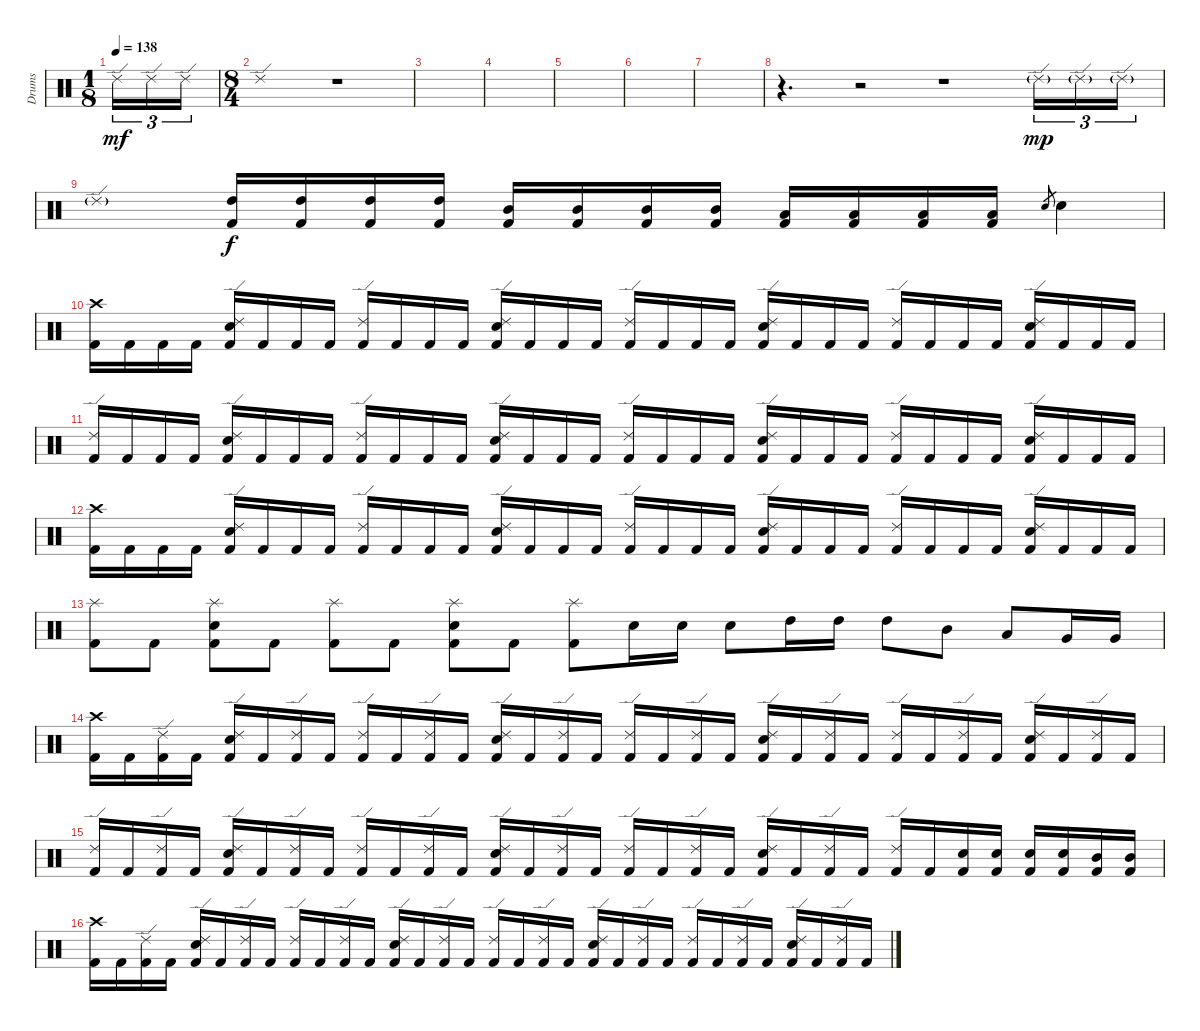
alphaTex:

\track ("Drums" "Drums") {instrument percussion}
\staff {score}
\articulation defaults
\ts (1 8)
\tempo 138
\clef neutral
\ks c "Ride (edge) 2".16{tu (3 2) dy mf} "Ride (edge) 2".16{tu (3 2)} "Ride (edge) 2".16{tu (3 2)}
|
\ts (8 4)
"Ride (edge) 2".1 r.1 |
|
|
|
|
|
r.4{d} r.2 r.1 "Ride (edge) 2"{g}.16{tu (3 2) dy mp} "Ride (edge) 2"{g}.16{tu (3 2)} "Ride (edge) 2"{g}.16{tu (3 2)} |
"Ride (edge) 2"{g}.1 ("High Tom (hit)" "Kick (hit) 2").16{dy f} ("High Tom (hit)" "Kick (hit) 2").16 ("High Tom (hit)" "Kick (hit) 2").16 ("High Tom (hit)" "Kick (hit) 2").16 ("Mid Tom (hit)" "Kick (hit) 2").16 ("Mid Tom (hit)" "Kick (hit) 2").16 ("Mid Tom (hit)" "Kick (hit) 2").16 ("Mid Tom (hit)" "Kick (hit) 2").16 ("Low Tom (hit)" "Kick (hit) 2").16 ("Low Tom (hit)" "Kick (hit) 2").16 ("Low Tom (hit)" "Kick (hit) 2").16 ("Low Tom (hit)" "Kick (hit) 2").16 "Snare (hit) 2".8{gr} "Snare (hit) 2".4 |
("Crash high (hit)" "Kick (hit) 2").16 "Kick (hit) 2".16 "Kick (hit) 2".16 "Kick (hit) 2".16 ("Ride (edge) 2" "Snare (hit) 2" "Kick (hit) 2").16 "Kick (hit) 2".16 "Kick (hit) 2".16 "Kick (hit) 2".16 ("Ride (edge) 2" "Kick (hit) 2").16 "Kick (hit) 2".16 "Kick (hit) 2".16 "Kick (hit) 2".16 ("Ride (edge) 2" "Snare (hit) 2" "Kick (hit) 2").16 "Kick (hit) 2".16 "Kick (hit) 2".16 "Kick (hit) 2".16 ("Ride (edge) 2" "Kick (hit) 2").16 "Kick (hit) 2".16 "Kick (hit) 2".16 "Kick (hit) 2".16 ("Ride (edge) 2" "Snare (hit) 2" "Kick (hit) 2").16 "Kick (hit) 2".16 "Kick (hit) 2".16 "Kick (hit) 2".16 ("Ride (edge) 2" "Kick (hit) 2").16 "Kick (hit) 2".16 "Kick (hit) 2".16 "Kick (hit) 2".16 ("Ride (edge) 2" "Snare (hit) 2" "Kick (hit) 2").16 "Kick (hit) 2".16 "Kick (hit) 2".16 "Kick (hit) 2".16 |
("Ride (edge) 2" "Kick (hit) 2").16 "Kick (hit) 2".16 "Kick (hit) 2".16 "Kick (hit) 2".16 ("Ride (edge) 2" "Snare (hit) 2" "Kick (hit) 2").16 "Kick (hit) 2".16 "Kick (hit) 2".16 "Kick (hit) 2".16 ("Ride (edge) 2" "Kick (hit) 2").16 "Kick (hit) 2".16 "Kick (hit) 2".16 "Kick (hit) 2".16 ("Ride (edge) 2" "Snare (hit) 2" "Kick (hit) 2").16 "Kick (hit) 2".16 "Kick (hit) 2".16 "Kick (hit) 2".16 ("Ride (edge) 2" "Kick (hit) 2").16 "Kick (hit) 2".16 "Kick (hit) 2".16 "Kick (hit) 2".16 ("Ride (edge) 2" "Snare (hit) 2" "Kick (hit) 2").16 "Kick (hit) 2".16 "Kick (hit) 2".16 "Kick (hit) 2".16 ("Ride (edge) 2" "Kick (hit) 2").16 "Kick (hit) 2".16 "Kick (hit) 2".16 "Kick (hit) 2".16 ("Ride (edge) 2" "Snare (hit) 2" "Kick (hit) 2").16 "Kick (hit) 2".16 "Kick (hit) 2".16 "Kick (hit) 2".16 |
("Crash high (hit)" "Kick (hit) 2").16 "Kick (hit) 2".16 "Kick (hit) 2".16 "Kick (hit) 2".16 ("Ride (edge) 2" "Snare (hit) 2" "Kick (hit) 2").16 "Kick (hit) 2".16 "Kick (hit) 2".16 "Kick (hit) 2".16 ("Ride (edge) 2" "Kick (hit) 2").16 "Kick (hit) 2".16 "Kick (hit) 2".16 "Kick (hit) 2".16 ("Ride (edge) 2" "Snare (hit) 2" "Kick (hit) 2").16 "Kick (hit) 2".16 "Kick (hit) 2".16 "Kick (hit) 2".16 ("Ride (edge) 2" "Kick (hit) 2").16 "Kick (hit) 2".16 "Kick (hit) 2".16 "Kick (hit) 2".16 ("Ride (edge) 2" "Snare (hit) 2" "Kick (hit) 2").16 "Kick (hit) 2".16 "Kick (hit) 2".16 "Kick (hit) 2".16 ("Ride (edge) 2" "Kick (hit) 2").16 "Kick (hit) 2".16 "Kick (hit) 2".16 "Kick (hit) 2".16 ("Ride (edge) 2" "Snare (hit) 2" "Kick (hit) 2").16 "Kick (hit) 2".16 "Kick (hit) 2".16 "Kick (hit) 2".16 |
("Splash (hit)" "Kick (hit) 2").8 "Kick (hit) 2".8 ("Splash (hit)" "Snare (hit) 2" "Kick (hit) 2").8 "Kick (hit) 2".8 ("Splash (hit)" "Kick (hit) 2").8 "Kick (hit) 2".8 ("Splash (hit)" "Snare (hit) 2" "Kick (hit) 2").8 "Kick (hit) 2".8 ("Splash (hit)" "Kick (hit) 2").8 "Snare (hit) 2".16 "Snare (hit) 2".16 "Snare (hit) 2".8 "High Tom (hit)".16 "High Tom (hit)".16 "High Tom (hit)".8 "Mid Tom (hit)".8 "Low Tom (hit)".8 "Very Low Tom (hit)".16 "Very Low Tom (hit)".16 |
("Crash high (hit)" "Kick (hit) 2").16 "Kick (hit) 2".16 ("Ride (edge) 2" "Kick (hit) 2").16 "Kick (hit) 2".16 ("Ride (edge) 2" "Snare (hit) 2" "Kick (hit) 2").16 "Kick (hit) 2".16 ("Ride (edge) 2" "Kick (hit) 2").16 "Kick (hit) 2".16 ("Ride (edge) 2" "Kick (hit) 2").16 "Kick (hit) 2".16 ("Ride (edge) 2" "Kick (hit) 2").16 "Kick (hit) 2".16 ("Ride (edge) 2" "Snare (hit) 2" "Kick (hit) 2").16 "Kick (hit) 2".16 ("Ride (edge) 2" "Kick (hit) 2").16 "Kick (hit) 2".16 ("Ride (edge) 2" "Kick (hit) 2").16 "Kick (hit) 2".16 ("Ride (edge) 2" "Kick (hit) 2").16 "Kick (hit) 2".16 ("Ride (edge) 2" "Snare (hit) 2" "Kick (hit) 2").16 "Kick (hit) 2".16 ("Ride (edge) 2" "Kick (hit) 2").16 "Kick (hit) 2".16 ("Ride (edge) 2" "Kick (hit) 2").16 "Kick (hit) 2".16 ("Ride (edge) 2" "Kick (hit) 2").16 "Kick (hit) 2".16 ("Ride (edge) 2" "Snare (hit) 2" "Kick (hit) 2").16 "Kick (hit) 2".16 ("Ride (edge) 2" "Kick (hit) 2").16 "Kick (hit) 2".16 |
("Ride (edge) 2" "Kick (hit) 2").16 "Kick (hit) 2".16 ("Ride (edge) 2" "Kick (hit) 2").16 "Kick (hit) 2".16 ("Ride (edge) 2" "Snare (hit) 2" "Kick (hit) 2").16 "Kick (hit) 2".16 ("Ride (edge) 2" "Kick (hit) 2").16 "Kick (hit) 2".16 ("Ride (edge) 2" "Kick (hit) 2").16 "Kick (hit) 2".16 ("Ride (edge) 2" "Kick (hit) 2").16 "Kick (hit) 2".16 ("Ride (edge) 2" "Snare (hit) 2" "Kick (hit) 2").16 "Kick (hit) 2".16 ("Ride (edge) 2" "Kick (hit) 2").16 "Kick (hit) 2".16 ("Ride (edge) 2" "Kick (hit) 2").16 "Kick (hit) 2".16 ("Ride (edge) 2" "Kick (hit) 2").16 "Kick (hit) 2".16 ("Ride (edge) 2" "Snare (hit) 2" "Kick (hit) 2").16 "Kick (hit) 2".16 ("Ride (edge) 2" "Kick (hit) 2").16 "Kick (hit) 2".16 ("Ride (edge) 2" "Kick (hit) 2").16 "Kick (hit) 2".16 ("Snare (hit) 2" "Kick (hit) 2").16 ("Snare (hit) 2" "Kick (hit) 2").16 ("Snare (hit) 2" "Kick (hit) 2").16 ("Snare (hit) 2" "Kick (hit) 2").16 ("Mid Tom (hit)" "Kick (hit) 2").16 ("Mid Tom (hit)" "Kick (hit) 2").16 |
("Crash high (hit)" "Kick (hit) 2").16 "Kick (hit) 2".16 ("Ride (edge) 2" "Kick (hit) 2").16 "Kick (hit) 2".16 ("Ride (edge) 2" "Snare (hit) 2" "Kick (hit) 2").16 "Kick (hit) 2".16 ("Ride (edge) 2" "Kick (hit) 2").16 "Kick (hit) 2".16 ("Ride (edge) 2" "Kick (hit) 2").16 "Kick (hit) 2".16 ("Ride (edge) 2" "Kick (hit) 2").16 "Kick (hit) 2".16 ("Ride (edge) 2" "Snare (hit) 2" "Kick (hit) 2").16 "Kick (hit) 2".16 ("Ride (edge) 2" "Kick (hit) 2").16 "Kick (hit) 2".16 ("Ride (edge) 2" "Kick (hit) 2").16 "Kick (hit) 2".16 ("Ride (edge) 2" "Kick (hit) 2").16 "Kick (hit) 2".16 ("Ride (edge) 2" "Snare (hit) 2" "Kick (hit) 2").16 "Kick (hit) 2".16 ("Ride (edge) 2" "Kick (hit) 2").16 "Kick (hit) 2".16 ("Ride (edge) 2" "Kick (hit) 2").16 "Kick (hit) 2".16 ("Ride (edge) 2" "Kick (hit) 2").16 "Kick (hit) 2".16 ("Ride (edge) 2" "Snare (hit) 2" "Kick (hit) 2").16 "Kick (hit) 2".16 ("Ride (edge) 2" "Kick (hit) 2").16 "Kick (hit) 2".16
